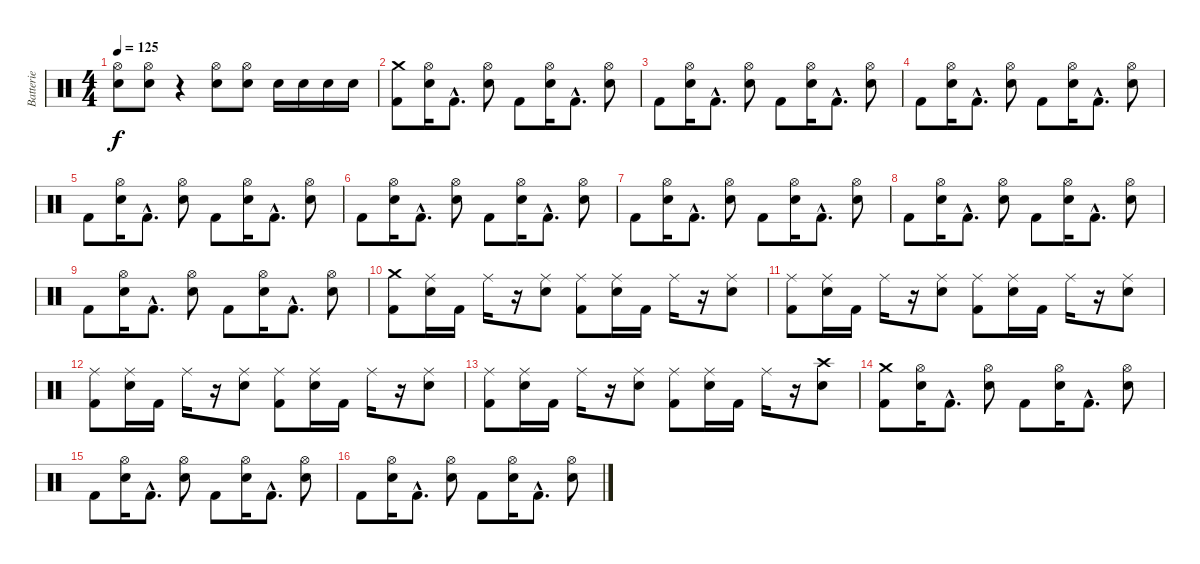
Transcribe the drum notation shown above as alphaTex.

\track ("Batterie" "Batterie") {instrument percussion}
\staff {score}
\articulation defaults
\ts (4 4)
\tempo 125
\clef neutral
\ks c
("Hi-Hat (open)" "Electric Snare (hit)").8{dy f} ("Hi-Hat (open)" "Electric Snare (hit)").8 r.4 ("Hi-Hat (open)" "Electric Snare (hit)").8 ("Hi-Hat (open)" "Electric Snare (hit)").8 "Electric Snare (hit)".16 "Electric Snare (hit)".16 "Electric Snare (hit)".16 "Electric Snare (hit)".16 |
("Crash medium (hit)" "Kick (hit) 2").8 ("Hi-Hat (open)" "Electric Snare (hit)").16 "Kick (hit) 2"{hac}.8{d} ("Hi-Hat (open)" "Electric Snare (hit)").8 "Kick (hit) 2".8 ("Hi-Hat (open)" "Electric Snare (hit)").16 "Kick (hit) 2"{hac}.8{d} ("Hi-Hat (open)" "Electric Snare (hit)").8 |
"Kick (hit) 2".8 ("Hi-Hat (open)" "Electric Snare (hit)").16 "Kick (hit) 2"{hac}.8{d} ("Hi-Hat (open)" "Electric Snare (hit)").8 "Kick (hit) 2".8 ("Hi-Hat (open)" "Electric Snare (hit)").16 "Kick (hit) 2"{hac}.8{d} ("Hi-Hat (open)" "Electric Snare (hit)").8 |
"Kick (hit) 2".8 ("Hi-Hat (open)" "Electric Snare (hit)").16 "Kick (hit) 2"{hac}.8{d} ("Hi-Hat (open)" "Electric Snare (hit)").8 "Kick (hit) 2".8 ("Hi-Hat (open)" "Electric Snare (hit)").16 "Kick (hit) 2"{hac}.8{d} ("Hi-Hat (open)" "Electric Snare (hit)").8 |
"Kick (hit) 2".8 ("Hi-Hat (open)" "Electric Snare (hit)").16 "Kick (hit) 2"{hac}.8{d} ("Hi-Hat (open)" "Electric Snare (hit)").8 "Kick (hit) 2".8 ("Hi-Hat (open)" "Electric Snare (hit)").16 "Kick (hit) 2"{hac}.8{d} ("Hi-Hat (open)" "Electric Snare (hit)").8 |
"Kick (hit) 2".8 ("Hi-Hat (open)" "Electric Snare (hit)").16 "Kick (hit) 2"{hac}.8{d} ("Hi-Hat (open)" "Electric Snare (hit)").8 "Kick (hit) 2".8 ("Hi-Hat (open)" "Electric Snare (hit)").16 "Kick (hit) 2"{hac}.8{d} ("Hi-Hat (open)" "Electric Snare (hit)").8 |
"Kick (hit) 2".8 ("Hi-Hat (open)" "Electric Snare (hit)").16 "Kick (hit) 2"{hac}.8{d} ("Hi-Hat (open)" "Electric Snare (hit)").8 "Kick (hit) 2".8 ("Hi-Hat (open)" "Electric Snare (hit)").16 "Kick (hit) 2"{hac}.8{d} ("Hi-Hat (open)" "Electric Snare (hit)").8 |
"Kick (hit) 2".8 ("Hi-Hat (open)" "Electric Snare (hit)").16 "Kick (hit) 2"{hac}.8{d} ("Hi-Hat (open)" "Electric Snare (hit)").8 "Kick (hit) 2".8 ("Hi-Hat (open)" "Electric Snare (hit)").16 "Kick (hit) 2"{hac}.8{d} ("Hi-Hat (open)" "Electric Snare (hit)").8 |
"Kick (hit) 2".8 ("Hi-Hat (open)" "Electric Snare (hit)").16 "Kick (hit) 2"{hac}.8{d} ("Hi-Hat (open)" "Electric Snare (hit)").8 "Kick (hit) 2".8 ("Hi-Hat (open)" "Electric Snare (hit)").16 "Kick (hit) 2"{hac}.8{d} ("Hi-Hat (open)" "Electric Snare (hit)").8 |
("Crash medium (hit)" "Kick (hit) 2").8 ("Ride (middle)" "Electric Snare (hit)").16 "Kick (hit) 2".16 "Ride (middle)".16 r.16 ("Ride (middle)" "Electric Snare (hit)").8 ("Ride (middle)" "Kick (hit) 2").8 ("Ride (middle)" "Electric Snare (hit)").16 "Kick (hit) 2".16 "Ride (middle)".16 r.16 ("Ride (middle)" "Electric Snare (hit)").8 |
("Ride (middle)" "Kick (hit) 2").8 ("Ride (middle)" "Electric Snare (hit)").16 "Kick (hit) 2".16 "Ride (middle)".16 r.16 ("Ride (middle)" "Electric Snare (hit)").8 ("Ride (middle)" "Kick (hit) 2").8 ("Ride (middle)" "Electric Snare (hit)").16 "Kick (hit) 2".16 "Ride (middle)".16 r.16 ("Ride (middle)" "Electric Snare (hit)").8 |
("Ride (middle)" "Kick (hit) 2").8 ("Ride (middle)" "Electric Snare (hit)").16 "Kick (hit) 2".16 "Ride (middle)".16 r.16 ("Ride (middle)" "Electric Snare (hit)").8 ("Ride (middle)" "Kick (hit) 2").8 ("Ride (middle)" "Electric Snare (hit)").16 "Kick (hit) 2".16 "Ride (middle)".16 r.16 ("Ride (middle)" "Electric Snare (hit)").8 |
("Ride (middle)" "Kick (hit) 2").8 ("Ride (middle)" "Electric Snare (hit)").16 "Kick (hit) 2".16 "Ride (middle)".16 r.16 ("Ride (middle)" "Electric Snare (hit)").8 ("Ride (middle)" "Kick (hit) 2").8 ("Ride (middle)" "Electric Snare (hit)").16 "Kick (hit) 2".16 "Ride (middle)".16 r.16 ("Crash high (hit)" "Electric Snare (hit)").8 |
("Crash medium (hit)" "Kick (hit) 2").8 ("Hi-Hat (open)" "Electric Snare (hit)").16 "Kick (hit) 2"{hac}.8{d} ("Hi-Hat (open)" "Electric Snare (hit)").8 "Kick (hit) 2".8 ("Hi-Hat (open)" "Electric Snare (hit)").16 "Kick (hit) 2"{hac}.8{d} ("Hi-Hat (open)" "Electric Snare (hit)").8 |
"Kick (hit) 2".8 ("Hi-Hat (open)" "Electric Snare (hit)").16 "Kick (hit) 2"{hac}.8{d} ("Hi-Hat (open)" "Electric Snare (hit)").8 "Kick (hit) 2".8 ("Hi-Hat (open)" "Electric Snare (hit)").16 "Kick (hit) 2"{hac}.8{d} ("Hi-Hat (open)" "Electric Snare (hit)").8 |
"Kick (hit) 2".8 ("Hi-Hat (open)" "Electric Snare (hit)").16 "Kick (hit) 2"{hac}.8{d} ("Hi-Hat (open)" "Electric Snare (hit)").8 "Kick (hit) 2".8 ("Hi-Hat (open)" "Electric Snare (hit)").16 "Kick (hit) 2"{hac}.8{d} ("Hi-Hat (open)" "Electric Snare (hit)").8
